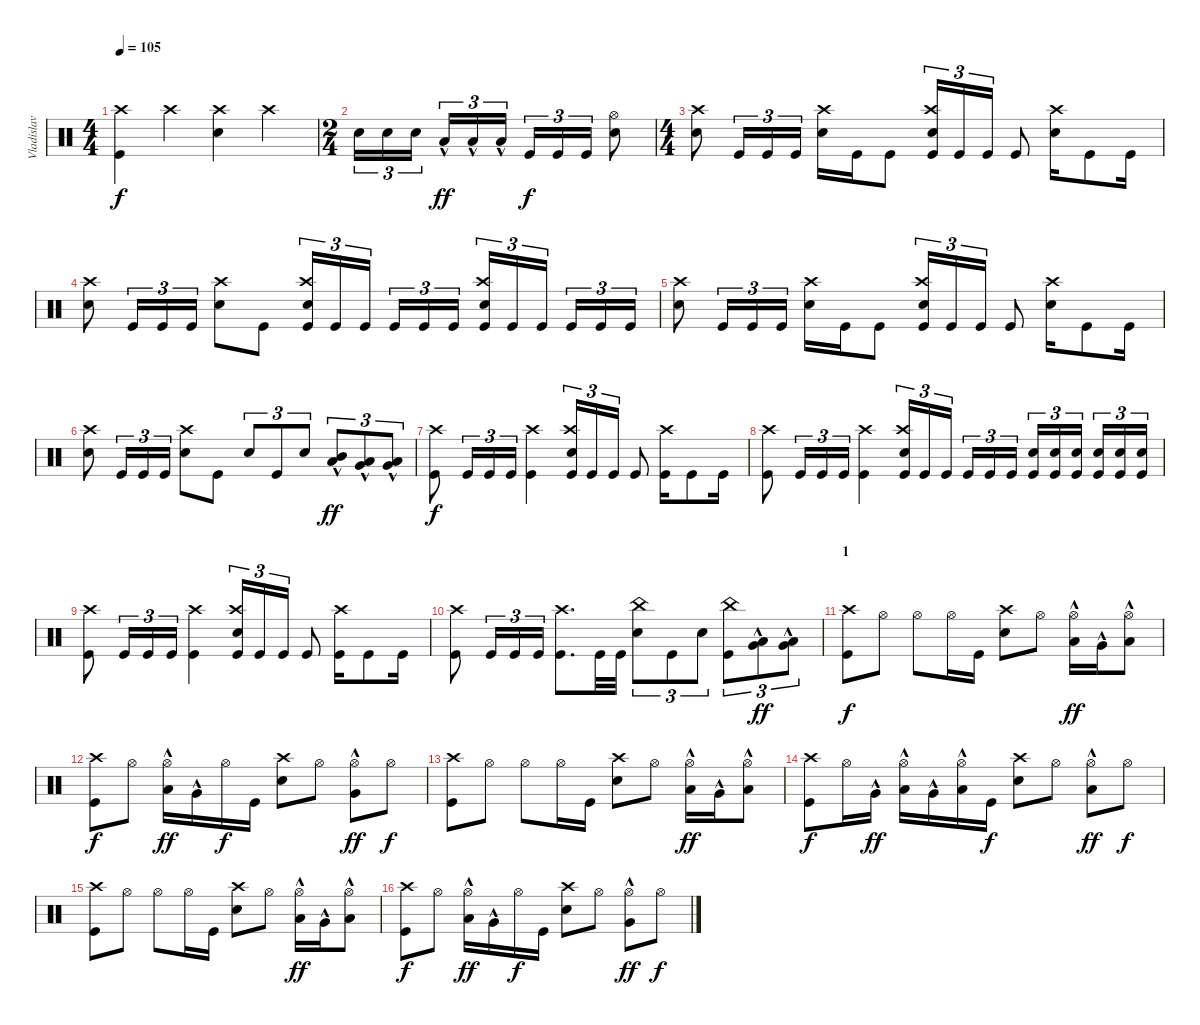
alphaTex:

\track ("Vladislav Ulasevish" "Vladislav ") {instrument percussion}
\staff {score}
\articulation defaults
\ts (4 4)
\tempo 105
\clef neutral
\ks c
("Kick (hit)" "Crash high (hit)").4{dy f} "Crash high (hit)".4 ("Crash high (hit)" "Snare (hit) 2").4 "Crash high (hit)".4 |
\ts (2 4)
"Snare (hit) 2".16{tu (3 2)} "Snare (hit) 2".16{tu (3 2)} "Snare (hit) 2".16{tu (3 2)} "Low Tom (hit)"{hac}.16{tu (3 2) dy ff} "Low Tom (hit)"{hac}.16{tu (3 2)} "Low Tom (hit)"{hac}.16{tu (3 2)} "Kick (hit)".16{tu (3 2) dy f} "Kick (hit)".16{tu (3 2)} "Kick (hit)".16{tu (3 2)} ("Snare (hit) 2" "Hi-Hat (open)").8 |
\ts (4 4)
\section ("" "")
("Crash high (hit)" "Snare (hit) 2").8 "Kick (hit)".16{tu (3 2)} "Kick (hit)".16{tu (3 2)} "Kick (hit)".16{tu (3 2)} ("Crash high (hit)" "Snare (hit) 2").16 "Kick (hit)".16 "Kick (hit)".8 ("Kick (hit)" "Snare (hit) 2" "Crash high (hit)").16{tu (3 2)} "Kick (hit)".16{tu (3 2)} "Kick (hit)".16{tu (3 2)} "Kick (hit)".8 ("Crash high (hit)" "Snare (hit) 2").16 "Kick (hit)".8 "Kick (hit)".16 |
("Crash high (hit)" "Snare (hit) 2").8 "Kick (hit)".16{tu (3 2)} "Kick (hit)".16{tu (3 2)} "Kick (hit)".16{tu (3 2)} ("Crash high (hit)" "Snare (hit) 2").8 "Kick (hit)".8 ("Kick (hit)" "Snare (hit) 2" "Crash high (hit)").16{tu (3 2)} "Kick (hit)".16{tu (3 2)} "Kick (hit)".16{tu (3 2)} "Kick (hit)".16{tu (3 2)} "Kick (hit)".16{tu (3 2)} "Kick (hit)".16{tu (3 2)} ("Kick (hit)" "Snare (hit) 2" "Crash high (hit)").16{tu (3 2)} "Kick (hit)".16{tu (3 2)} "Kick (hit)".16{tu (3 2)} "Kick (hit)".16{tu (3 2)} "Kick (hit)".16{tu (3 2)} "Kick (hit)".16{tu (3 2)} |
("Crash high (hit)" "Snare (hit) 2").8 "Kick (hit)".16{tu (3 2)} "Kick (hit)".16{tu (3 2)} "Kick (hit)".16{tu (3 2)} ("Crash high (hit)" "Snare (hit) 2").16 "Kick (hit)".16 "Kick (hit)".8 ("Kick (hit)" "Snare (hit) 2" "Crash high (hit)").16{tu (3 2)} "Kick (hit)".16{tu (3 2)} "Kick (hit)".16{tu (3 2)} "Kick (hit)".8 ("Crash high (hit)" "Snare (hit) 2").16 "Kick (hit)".8 "Kick (hit)".16 |
("Crash high (hit)" "Snare (hit) 2").8 "Kick (hit)".16{tu (3 2)} "Kick (hit)".16{tu (3 2)} "Kick (hit)".16{tu (3 2)} ("Crash high (hit)" "Snare (hit) 2").8 "Kick (hit)".8 "Snare (hit) 2".8{tu (3 2)} "Kick (hit)".8{tu (3 2)} "Snare (hit) 2".8{tu (3 2)} ("Low Tom (hit)"{hac} "Mid Tom (hit)"{hac}).8{tu (3 2) dy ff} ("Low Tom (hit)"{hac} "Very Low Tom (hit)"{hac}).8{tu (3 2)} ("Very Low Tom (hit)"{hac} "Low Floor Tom (hit)"{hac}).8{tu (3 2)} |
("Kick (hit)" "Crash high (hit)").8{dy f} "Kick (hit)".16{tu (3 2)} "Kick (hit)".16{tu (3 2)} "Kick (hit)".16{tu (3 2)} ("Kick (hit)" "Crash high (hit)").4 ("Kick (hit)" "Snare (hit) 2" "Crash high (hit)").16{tu (3 2)} "Kick (hit)".16{tu (3 2)} "Kick (hit)".16{tu (3 2)} "Kick (hit)".8 ("Kick (hit)" "Crash high (hit)").16 "Kick (hit)".8 "Kick (hit)".16 |
("Kick (hit)" "Crash high (hit)").8 "Kick (hit)".16{tu (3 2)} "Kick (hit)".16{tu (3 2)} "Kick (hit)".16{tu (3 2)} ("Kick (hit)" "Crash high (hit)").4 ("Kick (hit)" "Snare (hit) 2" "Crash high (hit)").16{tu (3 2)} "Kick (hit)".16{tu (3 2)} "Kick (hit)".16{tu (3 2)} "Kick (hit)".16{tu (3 2)} "Kick (hit)".16{tu (3 2)} "Kick (hit)".16{tu (3 2)} ("Kick (hit)" "Snare (hit) 2").16{tu (3 2)} ("Kick (hit)" "Snare (hit) 2").16{tu (3 2)} ("Kick (hit)" "Snare (hit) 2").16{tu (3 2)} ("Kick (hit)" "Snare (hit) 2").16{tu (3 2)} ("Kick (hit)" "Snare (hit) 2").16{tu (3 2)} ("Kick (hit)" "Snare (hit) 2").16{tu (3 2)} |
("Kick (hit)" "Crash high (hit)").8 "Kick (hit)".16{tu (3 2)} "Kick (hit)".16{tu (3 2)} "Kick (hit)".16{tu (3 2)} ("Kick (hit)" "Crash high (hit)").4 ("Kick (hit)" "Snare (hit) 2" "Crash high (hit)").16{tu (3 2)} "Kick (hit)".16{tu (3 2)} "Kick (hit)".16{tu (3 2)} "Kick (hit)".8 ("Kick (hit)" "Crash high (hit)").16 "Kick (hit)".8 "Kick (hit)".16 |
("Kick (hit)" "Crash high (hit)").8 "Kick (hit)".16{tu (3 2)} "Kick (hit)".16{tu (3 2)} "Kick (hit)".16{tu (3 2)} ("Kick (hit)" "Crash high (hit)").8{d} "Kick (hit)".32 "Kick (hit)".32 ("Snare (hit) 2" "China (hit)").8{tu (3 2)} "Kick (hit)".8{tu (3 2)} "Snare (hit) 2".8{tu (3 2)} ("Kick (hit)" "China (hit)").8{tu (3 2)} ("Low Tom (hit)"{hac} "Very Low Tom (hit)"{hac}).8{tu (3 2) dy ff} ("Very Low Tom (hit)"{hac} "Low Floor Tom (hit)"{hac}).8{tu (3 2)} |
\section ("" "1")
("Kick (hit)" "Crash high (hit)").8{dy f} "Hi-Hat (open)".8 "Hi-Hat (open)".8 "Hi-Hat (open)".16 "Kick (hit)".16 ("Snare (hit) 2" "Crash high (hit)").8 "Hi-Hat (open)".8 ("Hi-Hat (open)" "Low Tom (hit)"{hac}).16{dy ff} "Very Low Tom (hit)"{hac}.16 ("Hi-Hat (open)" "Low Floor Tom (hit)"{hac}).8 |
("Kick (hit)" "Crash high (hit)").8{dy f} "Hi-Hat (open)".8 ("Hi-Hat (open)" "Low Tom (hit)"{hac}).16{dy ff} "Very Low Tom (hit)"{hac}.16 "Hi-Hat (open)".16{dy f} "Kick (hit)".16 ("Snare (hit) 2" "Crash high (hit)").8 "Hi-Hat (open)".8 ("Hi-Hat (open)" "Very Low Tom (hit)"{hac}).8{dy ff} "Hi-Hat (open)".8{dy f} |
("Kick (hit)" "Crash high (hit)").8 "Hi-Hat (open)".8 "Hi-Hat (open)".8 "Hi-Hat (open)".16 "Kick (hit)".16 ("Snare (hit) 2" "Crash high (hit)").8 "Hi-Hat (open)".8 ("Hi-Hat (open)" "Low Tom (hit)"{hac}).16{dy ff} "Very Low Tom (hit)"{hac}.16 ("Hi-Hat (open)" "Low Floor Tom (hit)"{hac}).8 |
("Kick (hit)" "Crash high (hit)").8{dy f} "Hi-Hat (open)".16 "Very Low Tom (hit)"{hac}.16{dy ff} ("Hi-Hat (open)" "Low Tom (hit)"{hac}).16 "Very Low Tom (hit)"{hac}.16 ("Hi-Hat (open)" "Low Floor Tom (hit)"{hac}).16 "Kick (hit)".16{dy f} ("Snare (hit) 2" "Crash high (hit)").8 "Hi-Hat (open)".8 ("Hi-Hat (open)" "Low Floor Tom (hit)"{hac}).8{dy ff} "Hi-Hat (open)".8{dy f} |
("Kick (hit)" "Crash high (hit)").8 "Hi-Hat (open)".8 "Hi-Hat (open)".8 "Hi-Hat (open)".16 "Kick (hit)".16 ("Snare (hit) 2" "Crash high (hit)").8 "Hi-Hat (open)".8 ("Hi-Hat (open)" "Low Tom (hit)"{hac}).16{dy ff} "Very Low Tom (hit)"{hac}.16 ("Hi-Hat (open)" "Low Floor Tom (hit)"{hac}).8 |
("Kick (hit)" "Crash high (hit)").8{dy f} "Hi-Hat (open)".8 ("Hi-Hat (open)" "Low Tom (hit)"{hac}).16{dy ff} "Very Low Tom (hit)"{hac}.16 "Hi-Hat (open)".16{dy f} "Kick (hit)".16 ("Snare (hit) 2" "Crash high (hit)").8 "Hi-Hat (open)".8 ("Hi-Hat (open)" "Very Low Tom (hit)"{hac}).8{dy ff} "Hi-Hat (open)".8{dy f}
